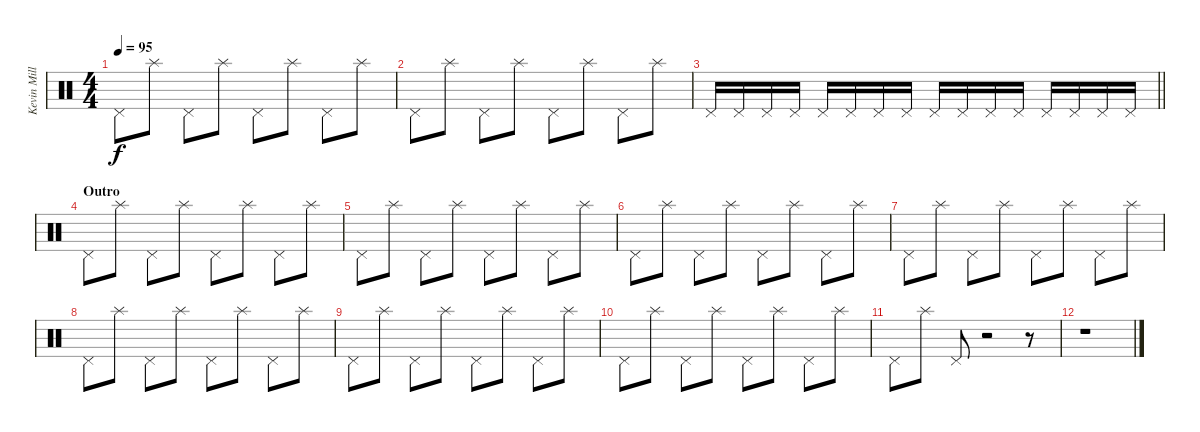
\track ("Kevin Miller (Drums)" "Kevin Mill") {instrument percussion}
\staff {score}
\articulation defaults
\ts (4 4)
\tempo 95
\clef neutral
\ks c "Pedal Hi-Hat (hit)".8{dy f} "Splash (hit)".8 "Pedal Hi-Hat (hit)".8 "Splash (hit)".8 "Pedal Hi-Hat (hit)".8 "Splash (hit)".8 "Pedal Hi-Hat (hit)".8 "Splash (hit)".8
|
"Pedal Hi-Hat (hit)".8 "Splash (hit)".8 "Pedal Hi-Hat (hit)".8 "Splash (hit)".8 "Pedal Hi-Hat (hit)".8 "Splash (hit)".8 "Pedal Hi-Hat (hit)".8 "Splash (hit)".8 |
\barLineRight lightlight "Pedal Hi-Hat (hit)".16 "Pedal Hi-Hat (hit)".16 "Pedal Hi-Hat (hit)".16 "Pedal Hi-Hat (hit)".16 "Pedal Hi-Hat (hit)".16 "Pedal Hi-Hat (hit)".16 "Pedal Hi-Hat (hit)".16 "Pedal Hi-Hat (hit)".16 "Pedal Hi-Hat (hit)".16 "Pedal Hi-Hat (hit)".16 "Pedal Hi-Hat (hit)".16 "Pedal Hi-Hat (hit)".16 "Pedal Hi-Hat (hit)".16 "Pedal Hi-Hat (hit)".16 "Pedal Hi-Hat (hit)".16 "Pedal Hi-Hat (hit)".16
|
\section ("" "Outro")
"Pedal Hi-Hat (hit)".8 "Splash (hit)".8 "Pedal Hi-Hat (hit)".8 "Splash (hit)".8 "Pedal Hi-Hat (hit)".8 "Splash (hit)".8 "Pedal Hi-Hat (hit)".8 "Splash (hit)".8 |
"Pedal Hi-Hat (hit)".8 "Splash (hit)".8 "Pedal Hi-Hat (hit)".8 "Splash (hit)".8 "Pedal Hi-Hat (hit)".8 "Splash (hit)".8 "Pedal Hi-Hat (hit)".8 "Splash (hit)".8 |
"Pedal Hi-Hat (hit)".8 "Splash (hit)".8 "Pedal Hi-Hat (hit)".8 "Splash (hit)".8 "Pedal Hi-Hat (hit)".8 "Splash (hit)".8 "Pedal Hi-Hat (hit)".8 "Splash (hit)".8 |
"Pedal Hi-Hat (hit)".8 "Splash (hit)".8 "Pedal Hi-Hat (hit)".8 "Splash (hit)".8 "Pedal Hi-Hat (hit)".8 "Splash (hit)".8 "Pedal Hi-Hat (hit)".8 "Splash (hit)".8 |
"Pedal Hi-Hat (hit)".8 "Splash (hit)".8 "Pedal Hi-Hat (hit)".8 "Splash (hit)".8 "Pedal Hi-Hat (hit)".8 "Splash (hit)".8 "Pedal Hi-Hat (hit)".8 "Splash (hit)".8 |
"Pedal Hi-Hat (hit)".8 "Splash (hit)".8 "Pedal Hi-Hat (hit)".8 "Splash (hit)".8 "Pedal Hi-Hat (hit)".8 "Splash (hit)".8 "Pedal Hi-Hat (hit)".8 "Splash (hit)".8 |
"Pedal Hi-Hat (hit)".8 "Splash (hit)".8 "Pedal Hi-Hat (hit)".8 "Splash (hit)".8 "Pedal Hi-Hat (hit)".8 "Splash (hit)".8 "Pedal Hi-Hat (hit)".8 "Splash (hit)".8 |
"Pedal Hi-Hat (hit)".8 "Splash (hit)".8 "Pedal Hi-Hat (hit)".8 r.2 r.8 |
r.1
